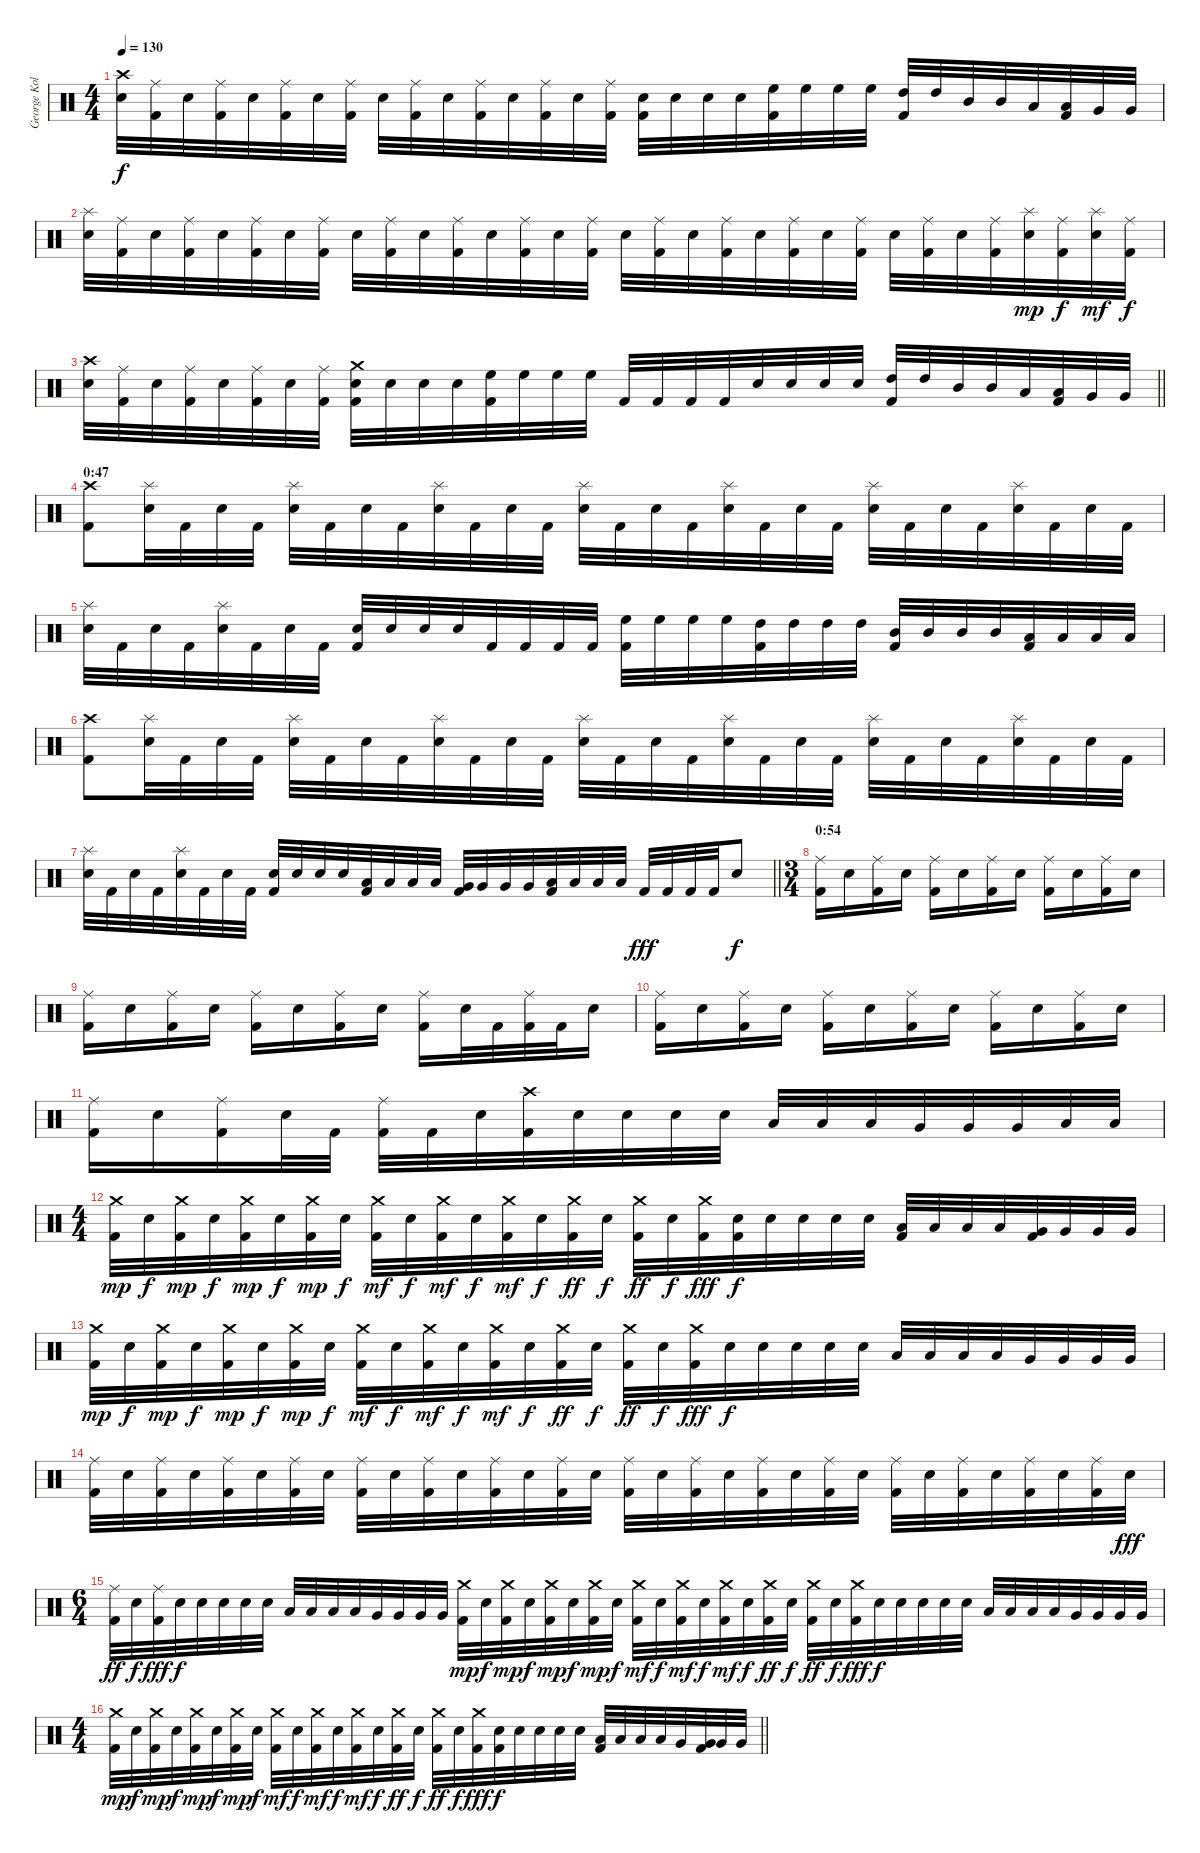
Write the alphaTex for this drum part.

\track ("George Kollias" "George Kol") {instrument percussion}
\staff {score}
\articulation defaults
\ts (4 4)
\tempo 130
\clef neutral
\ks c
("Crash high (hit)" "Electric Snare (hit)").32{dy f} ("Ride (middle)" "Kick (hit) 2").32 "Electric Snare (hit)".32 ("Ride (middle)" "Kick (hit) 2").32 "Electric Snare (hit)".32 ("Ride (middle)" "Kick (hit) 2").32 "Electric Snare (hit)".32 ("Ride (middle)" "Kick (hit) 2").32 "Electric Snare (hit)".32 ("Ride (middle)" "Kick (hit) 2").32 "Electric Snare (hit)".32 ("Ride (middle)" "Kick (hit) 2").32 "Electric Snare (hit)".32 ("Ride (middle)" "Kick (hit) 2").32 "Electric Snare (hit)".32 ("Ride (middle)" "Kick (hit) 2").32 ("Electric Snare (hit)" "Kick (hit) 2").32 "Electric Snare (hit)".32 "Electric Snare (hit)".32 "Electric Snare (hit)".32 ("High Floor Tom (hit)" "Kick (hit) 2").32 "High Floor Tom (hit)".32 "High Floor Tom (hit)".32 "High Floor Tom (hit)".32 ("High Tom (hit)" "Kick (hit) 2").32 "High Tom (hit)".32 "Mid Tom (hit)".32 "Mid Tom (hit)".32 "Low Tom (hit)".32 ("Low Tom (hit)" "Kick (hit) 2").32 "Very Low Tom (hit)".32 "Very Low Tom (hit)".32 |
("Splash (hit)" "Electric Snare (hit)").32 ("Ride (middle)" "Kick (hit) 2").32 "Electric Snare (hit)".32 ("Ride (middle)" "Kick (hit) 2").32 "Electric Snare (hit)".32 ("Ride (middle)" "Kick (hit) 2").32 "Electric Snare (hit)".32 ("Ride (middle)" "Kick (hit) 2").32 "Electric Snare (hit)".32 ("Ride (middle)" "Kick (hit) 2").32 "Electric Snare (hit)".32 ("Ride (middle)" "Kick (hit) 2").32 "Electric Snare (hit)".32 ("Ride (middle)" "Kick (hit) 2").32 "Electric Snare (hit)".32 ("Ride (middle)" "Kick (hit) 2").32 "Electric Snare (hit)".32 ("Ride (middle)" "Kick (hit) 2").32 "Electric Snare (hit)".32 ("Ride (middle)" "Kick (hit) 2").32 "Electric Snare (hit)".32 ("Ride (middle)" "Kick (hit) 2").32 "Electric Snare (hit)".32 ("Ride (middle)" "Kick (hit) 2").32 "Electric Snare (hit)".32 ("Ride (middle)" "Kick (hit) 2").32 "Electric Snare (hit)".32 ("Ride (middle)" "Kick (hit) 2").32 ("Splash (hit)" "Electric Snare (hit)").32{dy mp} ("Ride (middle)" "Kick (hit) 2").32{dy f} ("Splash (hit)" "Electric Snare (hit)").32{dy mf} ("Ride (middle)" "Kick (hit) 2").32{dy f} |
\barLineRight lightlight
("Crash high (hit)" "Electric Snare (hit)").32 ("Ride (middle)" "Kick (hit) 2").32 "Electric Snare (hit)".32 ("Ride (middle)" "Kick (hit) 2").32 "Electric Snare (hit)".32 ("Ride (middle)" "Kick (hit) 2").32 "Electric Snare (hit)".32 ("Ride (middle)" "Kick (hit) 2").32 ("Crash medium (hit)" "Electric Snare (hit)" "Kick (hit) 2").32 "Electric Snare (hit)".32 "Electric Snare (hit)".32 "Electric Snare (hit)".32 ("High Floor Tom (hit)" "Kick (hit) 2").32 "High Floor Tom (hit)".32 "High Floor Tom (hit)".32 "High Floor Tom (hit)".32 "Kick (hit) 2".32 "Kick (hit) 2".32 "Kick (hit) 2".32 "Kick (hit) 2".32 "Electric Snare (hit)".32 "Electric Snare (hit)".32 "Electric Snare (hit)".32 "Electric Snare (hit)".32 ("High Tom (hit)" "Kick (hit) 2").32 "High Tom (hit)".32 "Mid Tom (hit)".32 "Mid Tom (hit)".32 "Low Tom (hit)".32 ("Low Tom (hit)" "Kick (hit) 2").32 "Very Low Tom (hit)".32 "Very Low Tom (hit)".32 |
\section ("" "0:47")
("Crash high (hit)" "Kick (hit) 2").8 ("Splash (hit)" "Electric Snare (hit)").32 "Kick (hit) 2".32 "Electric Snare (hit)".32 "Kick (hit) 2".32 ("Splash (hit)" "Electric Snare (hit)").32 "Kick (hit) 2".32 "Electric Snare (hit)".32 "Kick (hit) 2".32 ("Splash (hit)" "Electric Snare (hit)").32 "Kick (hit) 2".32 "Electric Snare (hit)".32 "Kick (hit) 2".32 ("Splash (hit)" "Electric Snare (hit)").32 "Kick (hit) 2".32 "Electric Snare (hit)".32 "Kick (hit) 2".32 ("Splash (hit)" "Electric Snare (hit)").32 "Kick (hit) 2".32 "Electric Snare (hit)".32 "Kick (hit) 2".32 ("Splash (hit)" "Electric Snare (hit)").32 "Kick (hit) 2".32 "Electric Snare (hit)".32 "Kick (hit) 2".32 ("Splash (hit)" "Electric Snare (hit)").32 "Kick (hit) 2".32 "Electric Snare (hit)".32 "Kick (hit) 2".32 |
("Splash (hit)" "Electric Snare (hit)").32 "Kick (hit) 2".32 "Electric Snare (hit)".32 "Kick (hit) 2".32 ("Splash (hit)" "Electric Snare (hit)").32 "Kick (hit) 2".32 "Electric Snare (hit)".32 "Kick (hit) 2".32 ("Electric Snare (hit)" "Kick (hit) 2").32 "Electric Snare (hit)".32 "Electric Snare (hit)".32 "Electric Snare (hit)".32 "Kick (hit) 2".32 "Kick (hit) 2".32 "Kick (hit) 2".32 "Kick (hit) 2".32 ("High Floor Tom (hit)" "Kick (hit) 2").32 "High Floor Tom (hit)".32 "High Floor Tom (hit)".32 "High Floor Tom (hit)".32 ("High Tom (hit)" "Kick (hit) 2").32 "High Tom (hit)".32 "High Tom (hit)".32 "High Tom (hit)".32 ("Mid Tom (hit)" "Kick (hit) 2").32 "Mid Tom (hit)".32 "Mid Tom (hit)".32 "Mid Tom (hit)".32 ("Low Tom (hit)" "Kick (hit) 2").32 "Low Tom (hit)".32 "Low Tom (hit)".32 "Low Tom (hit)".32 |
("Crash high (hit)" "Kick (hit) 2").8 ("Splash (hit)" "Electric Snare (hit)").32 "Kick (hit) 2".32 "Electric Snare (hit)".32 "Kick (hit) 2".32 ("Splash (hit)" "Electric Snare (hit)").32 "Kick (hit) 2".32 "Electric Snare (hit)".32 "Kick (hit) 2".32 ("Splash (hit)" "Electric Snare (hit)").32 "Kick (hit) 2".32 "Electric Snare (hit)".32 "Kick (hit) 2".32 ("Splash (hit)" "Electric Snare (hit)").32 "Kick (hit) 2".32 "Electric Snare (hit)".32 "Kick (hit) 2".32 ("Splash (hit)" "Electric Snare (hit)").32 "Kick (hit) 2".32 "Electric Snare (hit)".32 "Kick (hit) 2".32 ("Splash (hit)" "Electric Snare (hit)").32 "Kick (hit) 2".32 "Electric Snare (hit)".32 "Kick (hit) 2".32 ("Splash (hit)" "Electric Snare (hit)").32 "Kick (hit) 2".32 "Electric Snare (hit)".32 "Kick (hit) 2".32 |
\barLineRight lightlight
("Splash (hit)" "Electric Snare (hit)").32 "Kick (hit) 2".32 "Electric Snare (hit)".32 "Kick (hit) 2".32 ("Splash (hit)" "Electric Snare (hit)").32 "Kick (hit) 2".32 "Electric Snare (hit)".32 "Kick (hit) 2".32 ("Electric Snare (hit)" "Kick (hit) 2").32 "Electric Snare (hit)".32 "Electric Snare (hit)".32 "Electric Snare (hit)".32 ("Low Tom (hit)" "Kick (hit) 2").32 "Low Tom (hit)".32 "Low Tom (hit)".32 "Low Tom (hit)".32 ("Very Low Tom (hit)" "Kick (hit) 2").32 "Very Low Tom (hit)".32 "Very Low Tom (hit)".32 "Very Low Tom (hit)".32 ("Low Floor Tom (hit)" "Kick (hit) 2").32 "Low Floor Tom (hit)".32 "Low Floor Tom (hit)".32 "Low Floor Tom (hit)".32 "Kick (hit) 2".32{dy fff} "Kick (hit) 2".32 "Kick (hit) 2".32 "Kick (hit) 2".32 "Electric Snare (hit)".8{dy f} |
\ts (3 4)
\section ("" "0:54")
("Ride (middle)" "Kick (hit) 2").16 "Electric Snare (hit)".16 ("Ride (middle)" "Kick (hit) 2").16 "Electric Snare (hit)".16 ("Ride (middle)" "Kick (hit) 2").16 "Electric Snare (hit)".16 ("Ride (middle)" "Kick (hit) 2").16 "Electric Snare (hit)".16 ("Ride (middle)" "Kick (hit) 2").16 "Electric Snare (hit)".16 ("Ride (middle)" "Kick (hit) 2").16 "Electric Snare (hit)".16 |
("Ride (middle)" "Kick (hit) 2").16 "Electric Snare (hit)".16 ("Ride (middle)" "Kick (hit) 2").16 "Electric Snare (hit)".16 ("Ride (middle)" "Kick (hit) 2").16 "Electric Snare (hit)".16 ("Ride (middle)" "Kick (hit) 2").16 "Electric Snare (hit)".16 ("Ride (middle)" "Kick (hit) 2").16 "Electric Snare (hit)".32 "Kick (hit) 2".32 ("Ride (middle)" "Kick (hit) 2").32 "Kick (hit) 2".32 "Electric Snare (hit)".16 |
("Ride (middle)" "Kick (hit) 2").16 "Electric Snare (hit)".16 ("Ride (middle)" "Kick (hit) 2").16 "Electric Snare (hit)".16 ("Ride (middle)" "Kick (hit) 2").16 "Electric Snare (hit)".16 ("Ride (middle)" "Kick (hit) 2").16 "Electric Snare (hit)".16 ("Ride (middle)" "Kick (hit) 2").16 "Electric Snare (hit)".16 ("Ride (middle)" "Kick (hit) 2").16 "Electric Snare (hit)".16 |
("Ride (middle)" "Kick (hit) 2").16 "Electric Snare (hit)".16 ("Ride (middle)" "Kick (hit) 2").16 "Electric Snare (hit)".32 "Kick (hit) 2".32 ("Ride (middle)" "Kick (hit) 2").32 "Kick (hit) 2".32 "Electric Snare (hit)".32 ("Crash high (hit)" "Kick (hit) 2").32 "Electric Snare (hit)".32 "Electric Snare (hit)".32 "Electric Snare (hit)".32 "Electric Snare (hit)".32 "Low Tom (hit)".32 "Low Tom (hit)".32 "Low Tom (hit)".32 "Very Low Tom (hit)".32 "Very Low Tom (hit)".32 "Very Low Tom (hit)".32 "Low Floor Tom (hit)".32 "Low Floor Tom (hit)".32 |
\ts (4 4)
("Crash medium (hit)" "Kick (hit) 2").32{dy mp} "Electric Snare (hit)".32{dy f} ("Crash medium (hit)" "Kick (hit) 2").32{dy mp} "Electric Snare (hit)".32{dy f} ("Crash medium (hit)" "Kick (hit) 2").32{dy mp} "Electric Snare (hit)".32{dy f} ("Crash medium (hit)" "Kick (hit) 2").32{dy mp} "Electric Snare (hit)".32{dy f} ("Crash medium (hit)" "Kick (hit) 2").32{dy mf} "Electric Snare (hit)".32{dy f} ("Crash medium (hit)" "Kick (hit) 2").32{dy mf} "Electric Snare (hit)".32{dy f} ("Crash medium (hit)" "Kick (hit) 2").32{dy mf} "Electric Snare (hit)".32{dy f} ("Crash medium (hit)" "Kick (hit) 2").32{dy ff} "Electric Snare (hit)".32{dy f} ("Crash medium (hit)" "Kick (hit) 2").32{dy ff} "Electric Snare (hit)".32{dy f} ("Crash medium (hit)" "Kick (hit) 2").32{dy fff} ("Electric Snare (hit)" "Kick (hit) 2").32{dy f} "Electric Snare (hit)".32 "Electric Snare (hit)".32 "Electric Snare (hit)".32 "Electric Snare (hit)".32 ("Low Tom (hit)" "Kick (hit) 2").32 "Low Tom (hit)".32 "Low Tom (hit)".32 "Low Tom (hit)".32 ("Very Low Tom (hit)" "Kick (hit) 2").32 "Very Low Tom (hit)".32 "Very Low Tom (hit)".32 "Very Low Tom (hit)".32 |
("Crash medium (hit)" "Kick (hit) 2").32{dy mp} "Electric Snare (hit)".32{dy f} ("Crash medium (hit)" "Kick (hit) 2").32{dy mp} "Electric Snare (hit)".32{dy f} ("Crash medium (hit)" "Kick (hit) 2").32{dy mp} "Electric Snare (hit)".32{dy f} ("Crash medium (hit)" "Kick (hit) 2").32{dy mp} "Electric Snare (hit)".32{dy f} ("Crash medium (hit)" "Kick (hit) 2").32{dy mf} "Electric Snare (hit)".32{dy f} ("Crash medium (hit)" "Kick (hit) 2").32{dy mf} "Electric Snare (hit)".32{dy f} ("Crash medium (hit)" "Kick (hit) 2").32{dy mf} "Electric Snare (hit)".32{dy f} ("Crash medium (hit)" "Kick (hit) 2").32{dy ff} "Electric Snare (hit)".32{dy f} ("Crash medium (hit)" "Kick (hit) 2").32{dy ff} "Electric Snare (hit)".32{dy f} ("Crash medium (hit)" "Kick (hit) 2").32{dy fff} "Electric Snare (hit)".32{dy f} "Electric Snare (hit)".32 "Electric Snare (hit)".32 "Electric Snare (hit)".32 "Electric Snare (hit)".32 "Low Tom (hit)".32 "Low Tom (hit)".32 "Low Tom (hit)".32 "Low Tom (hit)".32 "Very Low Tom (hit)".32 "Very Low Tom (hit)".32 "Very Low Tom (hit)".32 "Very Low Tom (hit)".32 |
("Ride (middle)" "Kick (hit) 2").32 "Electric Snare (hit)".32 ("Ride (middle)" "Kick (hit) 2").32 "Electric Snare (hit)".32 ("Ride (middle)" "Kick (hit) 2").32 "Electric Snare (hit)".32 ("Ride (middle)" "Kick (hit) 2").32 "Electric Snare (hit)".32 ("Ride (middle)" "Kick (hit) 2").32 "Electric Snare (hit)".32 ("Ride (middle)" "Kick (hit) 2").32 "Electric Snare (hit)".32 ("Ride (middle)" "Kick (hit) 2").32 "Electric Snare (hit)".32 ("Ride (middle)" "Kick (hit) 2").32 "Electric Snare (hit)".32 ("Ride (middle)" "Kick (hit) 2").32 "Electric Snare (hit)".32 ("Ride (middle)" "Kick (hit) 2").32 "Electric Snare (hit)".32 ("Ride (middle)" "Kick (hit) 2").32 "Electric Snare (hit)".32 ("Ride (middle)" "Kick (hit) 2").32 "Electric Snare (hit)".32 ("Ride (middle)" "Kick (hit) 2").32 "Electric Snare (hit)".32 ("Ride (middle)" "Kick (hit) 2").32 "Electric Snare (hit)".32 ("Ride (middle)" "Kick (hit) 2").32 "Electric Snare (hit)".32 ("Ride (middle)" "Kick (hit) 2").32 "Electric Snare (hit)".32{dy fff} |
\ts (6 4)
("Ride (middle)" "Kick (hit) 2").32{dy ff} "Electric Snare (hit)".32{dy f} ("Ride (middle)" "Kick (hit) 2").32{dy fff} "Electric Snare (hit)".32{dy f} "Electric Snare (hit)".32 "Electric Snare (hit)".32 "Electric Snare (hit)".32 "Electric Snare (hit)".32 "Low Tom (hit)".32 "Low Tom (hit)".32 "Low Tom (hit)".32 "Low Tom (hit)".32 "Very Low Tom (hit)".32 "Very Low Tom (hit)".32 "Very Low Tom (hit)".32 "Very Low Tom (hit)".32 ("Crash medium (hit)" "Kick (hit) 2").32{dy mp} "Electric Snare (hit)".32{dy f} ("Crash medium (hit)" "Kick (hit) 2").32{dy mp} "Electric Snare (hit)".32{dy f} ("Crash medium (hit)" "Kick (hit) 2").32{dy mp} "Electric Snare (hit)".32{dy f} ("Crash medium (hit)" "Kick (hit) 2").32{dy mp} "Electric Snare (hit)".32{dy f} ("Crash medium (hit)" "Kick (hit) 2").32{dy mf} "Electric Snare (hit)".32{dy f} ("Crash medium (hit)" "Kick (hit) 2").32{dy mf} "Electric Snare (hit)".32{dy f} ("Crash medium (hit)" "Kick (hit) 2").32{dy mf} "Electric Snare (hit)".32{dy f} ("Crash medium (hit)" "Kick (hit) 2").32{dy ff} "Electric Snare (hit)".32{dy f} ("Crash medium (hit)" "Kick (hit) 2").32{dy ff} "Electric Snare (hit)".32{dy f} ("Crash medium (hit)" "Kick (hit) 2").32{dy fff} "Electric Snare (hit)".32{dy f} "Electric Snare (hit)".32 "Electric Snare (hit)".32 "Electric Snare (hit)".32 "Electric Snare (hit)".32 "Low Tom (hit)".32 "Low Tom (hit)".32 "Low Tom (hit)".32 "Low Tom (hit)".32 "Very Low Tom (hit)".32 "Very Low Tom (hit)".32 "Very Low Tom (hit)".32 "Very Low Tom (hit)".32 |
\ts (4 4)
\barLineRight lightlight
("Crash medium (hit)" "Kick (hit) 2").32{dy mp} "Electric Snare (hit)".32{dy f} ("Crash medium (hit)" "Kick (hit) 2").32{dy mp} "Electric Snare (hit)".32{dy f} ("Crash medium (hit)" "Kick (hit) 2").32{dy mp} "Electric Snare (hit)".32{dy f} ("Crash medium (hit)" "Kick (hit) 2").32{dy mp} "Electric Snare (hit)".32{dy f} ("Crash medium (hit)" "Kick (hit) 2").32{dy mf} "Electric Snare (hit)".32{dy f} ("Crash medium (hit)" "Kick (hit) 2").32{dy mf} "Electric Snare (hit)".32{dy f} ("Crash medium (hit)" "Kick (hit) 2").32{dy mf} "Electric Snare (hit)".32{dy f} ("Crash medium (hit)" "Kick (hit) 2").32{dy ff} "Electric Snare (hit)".32{dy f} ("Crash medium (hit)" "Kick (hit) 2").32{dy ff} "Electric Snare (hit)".32{dy f} ("Crash medium (hit)" "Kick (hit) 2").32{dy fff} ("Electric Snare (hit)" "Kick (hit) 2").32{dy f} "Electric Snare (hit)".32 "Electric Snare (hit)".32 "Electric Snare (hit)".32 "Electric Snare (hit)".32 ("Low Tom (hit)" "Kick (hit) 2").32 "Low Tom (hit)".32 "Low Tom (hit)".32 "Low Tom (hit)".32 "Very Low Tom (hit)".32 ("Very Low Tom (hit)" "Kick (hit) 2").32 "Very Low Tom (hit)".32 "Very Low Tom (hit)".32
